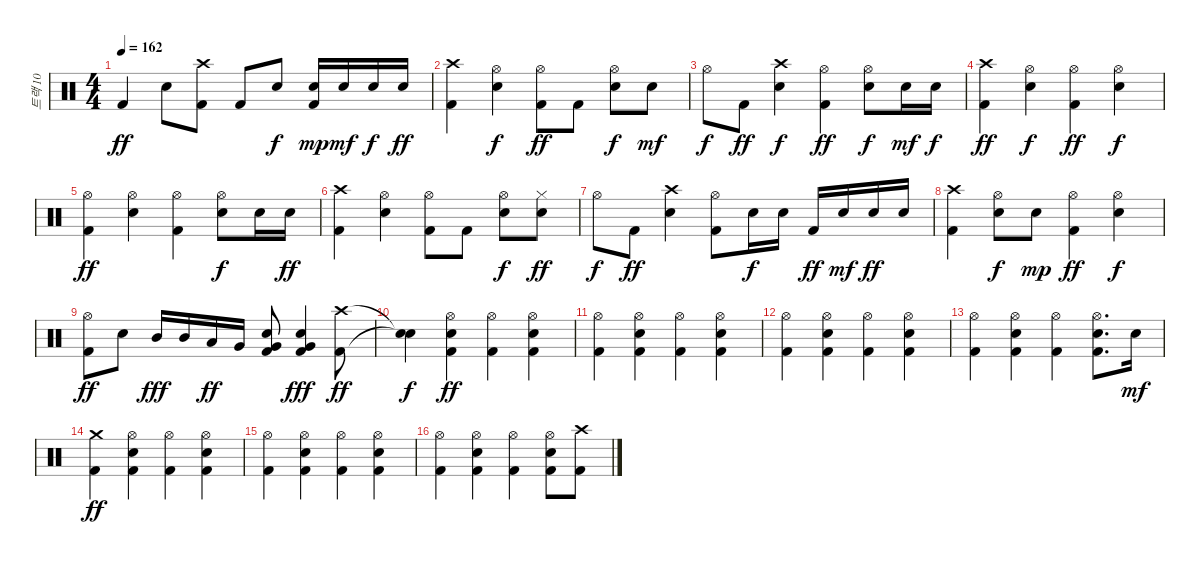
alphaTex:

\track ("트랙 10" "트랙 10") {instrument percussion}
\staff {score}
\articulation defaults
\ts (4 4)
\tempo 162
\clef neutral
\ks c "Kick (hit) 2".4{dy ff} "Electric Snare (hit)".8
("Kick (hit) 2" "Crash high (hit)").8 "Kick (hit) 2".8 "Electric Snare (hit)".8{dy f} ("Kick (hit) 2" "Electric Snare (hit)").16{dy mp} "Electric Snare (hit)".16{dy mf} "Electric Snare (hit)".16{dy f} "Electric Snare (hit)".16{dy ff} |
("Kick (hit) 2" "Crash high (hit)").4 ("Hi-Hat (open)" "Electric Snare (hit)").4{dy f} ("Hi-Hat (open)" "Kick (hit) 2").8{dy ff} "Kick (hit) 2".8 ("Hi-Hat (open)" "Electric Snare (hit)").8{dy f} "Electric Snare (hit)".8{dy mf} |
"Hi-Hat (open)".8{dy f} "Kick (hit) 2".8{dy ff} ("Electric Snare (hit)" "Crash high (hit)").4{dy f} ("Hi-Hat (open)" "Kick (hit) 2").4{dy ff} ("Hi-Hat (open)" "Electric Snare (hit)").8{dy f} "Electric Snare (hit)".16{dy mf} "Electric Snare (hit)".16{dy f} |
("Kick (hit) 2" "Crash high (hit)").4{dy ff} ("Hi-Hat (open)" "Electric Snare (hit)").4{dy f} ("Hi-Hat (open)" "Kick (hit) 2").4{dy ff} ("Hi-Hat (open)" "Electric Snare (hit)").4{dy f} |
("Hi-Hat (open)" "Kick (hit) 2").4{dy ff} ("Hi-Hat (open)" "Electric Snare (hit)").4 ("Hi-Hat (open)" "Kick (hit) 2").4 ("Hi-Hat (open)" "Electric Snare (hit)").8{dy f} "Electric Snare (hit)".16 "Electric Snare (hit)".16{dy ff} |
("Kick (hit) 2" "Crash high (hit)").4 ("Hi-Hat (open)" "Electric Snare (hit)").4 ("Hi-Hat (open)" "Kick (hit) 2").8 "Kick (hit) 2".8 ("Hi-Hat (open)" "Electric Snare (hit)").8{dy f} ("Hi-Hat (closed)" "Electric Snare (hit)").8{dy ff} |
"Hi-Hat (open)".8{dy f} "Kick (hit) 2".8{dy ff} ("Electric Snare (hit)" "Crash high (hit)").4 ("Hi-Hat (open)" "Kick (hit) 2").8 "Electric Snare (hit)".16{dy f} "Electric Snare (hit)".16 "Kick (hit) 2".16{dy ff} "Electric Snare (hit)".16{dy mf} "Electric Snare (hit)".16{dy ff} "Electric Snare (hit)".16 |
("Kick (hit) 2" "Crash high (hit)").4 ("Hi-Hat (open)" "Electric Snare (hit)").8{dy f} "Electric Snare (hit)".8{dy mp} ("Hi-Hat (open)" "Kick (hit) 2").4{dy ff} ("Hi-Hat (open)" "Electric Snare (hit)").4{dy f} |
("Hi-Hat (open)" "Kick (hit) 2").8{dy ff} "Electric Snare (hit)".8 "Mid Tom (hit)".16{dy fff} "Mid Tom (hit)".16 "Low Tom (hit)".16{dy ff} "Very Low Tom (hit)".16 ("Kick (hit) 2" "Very Low Tom (hit)" "Electric Snare (hit)").8 ("Kick (hit) 2" "Very Low Tom (hit)" "Electric Snare (hit)").4{dy fff} ("Kick (hit) 2" "Crash high (hit)").8{dy ff} |
("Snare (hit)"{t} "Snare (hit)"{t}).4{dy f} ("Hi-Hat (open)" "Kick (hit) 2" "Electric Snare (hit)").4{dy ff} ("Hi-Hat (open)" "Kick (hit) 2").4 ("Hi-Hat (open)" "Kick (hit) 2" "Electric Snare (hit)").4 |
("Hi-Hat (open)" "Kick (hit) 2").4 ("Hi-Hat (open)" "Kick (hit) 2" "Electric Snare (hit)").4 ("Hi-Hat (open)" "Kick (hit) 2").4 ("Hi-Hat (open)" "Kick (hit) 2" "Electric Snare (hit)").4 |
("Hi-Hat (open)" "Kick (hit) 2").4 ("Hi-Hat (open)" "Kick (hit) 2" "Electric Snare (hit)").4 ("Hi-Hat (open)" "Kick (hit) 2").4 ("Hi-Hat (open)" "Kick (hit) 2" "Electric Snare (hit)").4 |
("Hi-Hat (open)" "Kick (hit) 2").4 ("Hi-Hat (open)" "Kick (hit) 2" "Electric Snare (hit)").4 ("Hi-Hat (open)" "Kick (hit) 2").4 ("Hi-Hat (open)" "Kick (hit) 2" "Electric Snare (hit)").8{d} "Electric Snare (hit)".16{dy mf} |
("Kick (hit) 2" "Crash medium (hit)").4{dy ff} ("Hi-Hat (open)" "Kick (hit) 2" "Electric Snare (hit)").4 ("Hi-Hat (open)" "Kick (hit) 2").4 ("Hi-Hat (open)" "Kick (hit) 2" "Electric Snare (hit)").4 |
("Hi-Hat (open)" "Kick (hit) 2").4 ("Hi-Hat (open)" "Kick (hit) 2" "Electric Snare (hit)").4 ("Hi-Hat (open)" "Kick (hit) 2").4 ("Hi-Hat (open)" "Kick (hit) 2" "Electric Snare (hit)").4 |
("Hi-Hat (open)" "Kick (hit) 2").4 ("Hi-Hat (open)" "Kick (hit) 2" "Electric Snare (hit)").4 ("Hi-Hat (open)" "Kick (hit) 2").4 ("Hi-Hat (open)" "Kick (hit) 2" "Electric Snare (hit)").8 ("Kick (hit) 2" "Crash high (hit)").8
